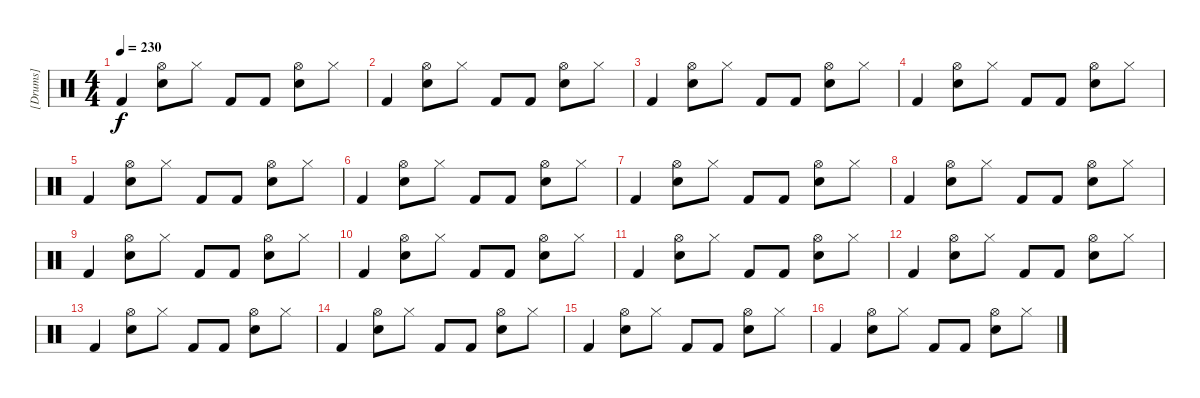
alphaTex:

\track ("[Drums]" "[Drums]") {instrument percussion}
\staff {score}
\articulation defaults
\ts (4 4)
\tempo 230
\clef neutral
\ks c "Kick (hit) 2".4{dy f}
("Hi-Hat (open)" "Electric Snare (hit)").8 "Hi-Hat (closed)".8 "Kick (hit) 2".8 "Kick (hit) 2".8 ("Hi-Hat (open)" "Electric Snare (hit)").8 "Hi-Hat (closed)".8 |
"Kick (hit) 2".4 ("Hi-Hat (open)" "Electric Snare (hit)").8 "Hi-Hat (closed)".8 "Kick (hit) 2".8 "Kick (hit) 2".8 ("Hi-Hat (open)" "Electric Snare (hit)").8 "Hi-Hat (closed)".8 |
"Kick (hit) 2".4 ("Hi-Hat (open)" "Electric Snare (hit)").8 "Hi-Hat (closed)".8 "Kick (hit) 2".8 "Kick (hit) 2".8 ("Hi-Hat (open)" "Electric Snare (hit)").8 "Hi-Hat (closed)".8 |
"Kick (hit) 2".4 ("Hi-Hat (open)" "Electric Snare (hit)").8 "Hi-Hat (closed)".8 "Kick (hit) 2".8 "Kick (hit) 2".8 ("Hi-Hat (open)" "Electric Snare (hit)").8 "Hi-Hat (closed)".8 |
"Kick (hit) 2".4 ("Hi-Hat (open)" "Electric Snare (hit)").8 "Hi-Hat (closed)".8 "Kick (hit) 2".8 "Kick (hit) 2".8 ("Hi-Hat (open)" "Electric Snare (hit)").8 "Hi-Hat (closed)".8 |
"Kick (hit) 2".4 ("Hi-Hat (open)" "Electric Snare (hit)").8 "Hi-Hat (closed)".8 "Kick (hit) 2".8 "Kick (hit) 2".8 ("Hi-Hat (open)" "Electric Snare (hit)").8 "Hi-Hat (closed)".8 |
"Kick (hit) 2".4 ("Hi-Hat (open)" "Electric Snare (hit)").8 "Hi-Hat (closed)".8 "Kick (hit) 2".8 "Kick (hit) 2".8 ("Hi-Hat (open)" "Electric Snare (hit)").8 "Hi-Hat (closed)".8 |
"Kick (hit) 2".4 ("Hi-Hat (open)" "Electric Snare (hit)").8 "Hi-Hat (closed)".8 "Kick (hit) 2".8 "Kick (hit) 2".8 ("Hi-Hat (open)" "Electric Snare (hit)").8 "Hi-Hat (closed)".8 |
"Kick (hit) 2".4 ("Hi-Hat (open)" "Electric Snare (hit)").8 "Hi-Hat (closed)".8 "Kick (hit) 2".8 "Kick (hit) 2".8 ("Hi-Hat (open)" "Electric Snare (hit)").8 "Hi-Hat (closed)".8 |
"Kick (hit) 2".4 ("Hi-Hat (open)" "Electric Snare (hit)").8 "Hi-Hat (closed)".8 "Kick (hit) 2".8 "Kick (hit) 2".8 ("Hi-Hat (open)" "Electric Snare (hit)").8 "Hi-Hat (closed)".8 |
"Kick (hit) 2".4 ("Hi-Hat (open)" "Electric Snare (hit)").8 "Hi-Hat (closed)".8 "Kick (hit) 2".8 "Kick (hit) 2".8 ("Hi-Hat (open)" "Electric Snare (hit)").8 "Hi-Hat (closed)".8 |
"Kick (hit) 2".4 ("Hi-Hat (open)" "Electric Snare (hit)").8 "Hi-Hat (closed)".8 "Kick (hit) 2".8 "Kick (hit) 2".8 ("Hi-Hat (open)" "Electric Snare (hit)").8 "Hi-Hat (closed)".8 |
"Kick (hit) 2".4 ("Hi-Hat (open)" "Electric Snare (hit)").8 "Hi-Hat (closed)".8 "Kick (hit) 2".8 "Kick (hit) 2".8 ("Hi-Hat (open)" "Electric Snare (hit)").8 "Hi-Hat (closed)".8 |
"Kick (hit) 2".4 ("Hi-Hat (open)" "Electric Snare (hit)").8 "Hi-Hat (closed)".8 "Kick (hit) 2".8 "Kick (hit) 2".8 ("Hi-Hat (open)" "Electric Snare (hit)").8 "Hi-Hat (closed)".8 |
"Kick (hit) 2".4 ("Hi-Hat (open)" "Electric Snare (hit)").8 "Hi-Hat (closed)".8 "Kick (hit) 2".8 "Kick (hit) 2".8 ("Hi-Hat (open)" "Electric Snare (hit)").8 "Hi-Hat (closed)".8 |
"Kick (hit) 2".4 ("Hi-Hat (open)" "Electric Snare (hit)").8 "Hi-Hat (closed)".8 "Kick (hit) 2".8 "Kick (hit) 2".8 ("Hi-Hat (open)" "Electric Snare (hit)").8 "Hi-Hat (closed)".8
